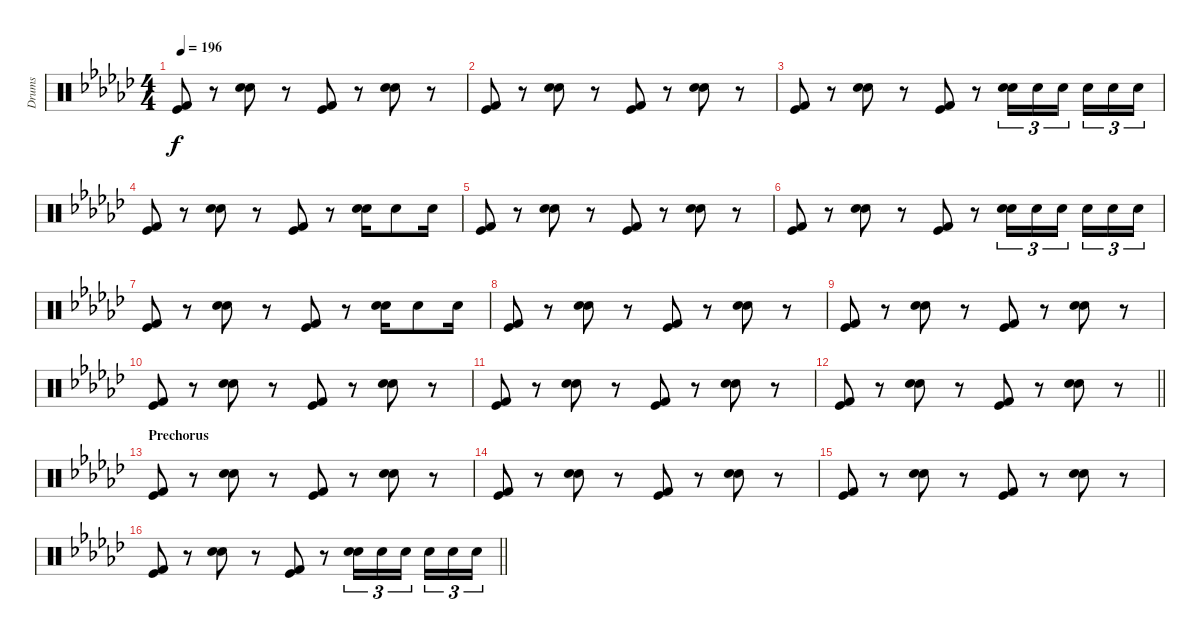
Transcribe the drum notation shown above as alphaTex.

\track ("Drums" "Drums") {instrument percussion}
\staff {score}
\articulation defaults
\ts (4 4)
\tempo 196
\clef neutral
\ks gb
("Kick (hit) 2" "Kick (hit)").8{dy f} r.8 ("Snare (hit) 2" "Electric Snare (hit)").8 r.8 ("Kick (hit) 2" "Kick (hit)").8 r.8 ("Snare (hit) 2" "Electric Snare (hit)").8 r.8 |
("Kick (hit) 2" "Kick (hit)").8 r.8 ("Snare (hit) 2" "Electric Snare (hit)").8 r.8 ("Kick (hit) 2" "Kick (hit)").8 r.8 ("Snare (hit) 2" "Electric Snare (hit)").8 r.8 |
("Kick (hit) 2" "Kick (hit)").8 r.8 ("Snare (hit) 2" "Electric Snare (hit)").8 r.8 ("Kick (hit) 2" "Kick (hit)").8 r.8 ("Hand Clap (hit)" "Electric Snare (hit)").16{tu (3 2)} "Hand Clap (hit)".16{tu (3 2)} "Hand Clap (hit)".16{tu (3 2) beam splitsecondary} "Hand Clap (hit)".16{tu (3 2)} "Hand Clap (hit)".16{tu (3 2)} "Hand Clap (hit)".16{tu (3 2)} |
("Kick (hit) 2" "Kick (hit)").8 r.8 ("Snare (hit) 2" "Electric Snare (hit)").8 r.8 ("Kick (hit) 2" "Kick (hit)").8 r.8 ("Snare (hit) 2" "Electric Snare (hit)").16 "Hand Clap (hit)".8 "Hand Clap (hit)".16 |
("Kick (hit) 2" "Kick (hit)").8 r.8 ("Snare (hit) 2" "Electric Snare (hit)").8 r.8 ("Kick (hit) 2" "Kick (hit)").8 r.8 ("Snare (hit) 2" "Electric Snare (hit)").8 r.8 |
("Kick (hit) 2" "Kick (hit)").8 r.8 ("Snare (hit) 2" "Electric Snare (hit)").8 r.8 ("Kick (hit) 2" "Kick (hit)").8 r.8 ("Hand Clap (hit)" "Electric Snare (hit)").16{tu (3 2)} "Hand Clap (hit)".16{tu (3 2)} "Hand Clap (hit)".16{tu (3 2) beam splitsecondary} "Hand Clap (hit)".16{tu (3 2)} "Hand Clap (hit)".16{tu (3 2)} "Hand Clap (hit)".16{tu (3 2)} |
("Kick (hit) 2" "Kick (hit)").8 r.8 ("Snare (hit) 2" "Electric Snare (hit)").8 r.8 ("Kick (hit) 2" "Kick (hit)").8 r.8 ("Snare (hit) 2" "Electric Snare (hit)").16 "Hand Clap (hit)".8 "Hand Clap (hit)".16 |
("Kick (hit) 2" "Kick (hit)").8 r.8 ("Snare (hit) 2" "Electric Snare (hit)").8 r.8 ("Kick (hit) 2" "Kick (hit)").8 r.8 ("Snare (hit) 2" "Electric Snare (hit)").8 r.8 |
("Kick (hit) 2" "Kick (hit)").8 r.8 ("Snare (hit) 2" "Electric Snare (hit)").8 r.8 ("Kick (hit) 2" "Kick (hit)").8 r.8 ("Snare (hit) 2" "Electric Snare (hit)").8 r.8 |
("Kick (hit) 2" "Kick (hit)").8 r.8 ("Snare (hit) 2" "Electric Snare (hit)").8 r.8 ("Kick (hit) 2" "Kick (hit)").8 r.8 ("Snare (hit) 2" "Electric Snare (hit)").8 r.8 |
("Kick (hit) 2" "Kick (hit)").8 r.8 ("Snare (hit) 2" "Electric Snare (hit)").8 r.8 ("Kick (hit) 2" "Kick (hit)").8 r.8 ("Snare (hit) 2" "Electric Snare (hit)").8 r.8 |
\barLineRight lightlight
("Kick (hit) 2" "Kick (hit)").8 r.8 ("Snare (hit) 2" "Electric Snare (hit)").8 r.8 ("Kick (hit) 2" "Kick (hit)").8 r.8 ("Snare (hit) 2" "Electric Snare (hit)").8 r.8 |
\section ("" "Prechorus")
("Kick (hit) 2" "Kick (hit)").8 r.8 ("Snare (hit) 2" "Electric Snare (hit)").8 r.8 ("Kick (hit) 2" "Kick (hit)").8 r.8 ("Snare (hit) 2" "Electric Snare (hit)").8 r.8 |
("Kick (hit) 2" "Kick (hit)").8 r.8 ("Snare (hit) 2" "Electric Snare (hit)").8 r.8 ("Kick (hit) 2" "Kick (hit)").8 r.8 ("Snare (hit) 2" "Electric Snare (hit)").8 r.8 |
("Kick (hit) 2" "Kick (hit)").8 r.8 ("Snare (hit) 2" "Electric Snare (hit)").8 r.8 ("Kick (hit) 2" "Kick (hit)").8 r.8 ("Snare (hit) 2" "Electric Snare (hit)").8 r.8 |
\barLineRight lightlight
("Kick (hit) 2" "Kick (hit)").8 r.8 ("Snare (hit) 2" "Electric Snare (hit)").8 r.8 ("Kick (hit) 2" "Kick (hit)").8 r.8 ("Hand Clap (hit)" "Electric Snare (hit)").16{tu (3 2)} "Hand Clap (hit)".16{tu (3 2)} "Hand Clap (hit)".16{tu (3 2) beam splitsecondary} "Hand Clap (hit)".16{tu (3 2)} "Hand Clap (hit)".16{tu (3 2)} "Hand Clap (hit)".16{tu (3 2)}
